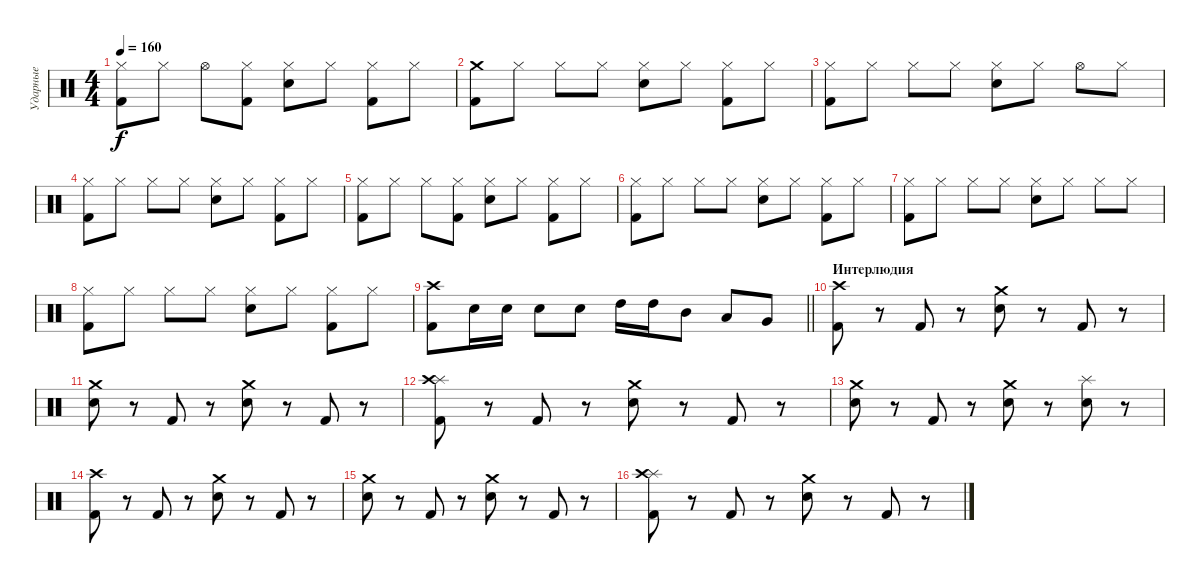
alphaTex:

\track ("Ударные" "Ударные") {instrument percussion}
\staff {score}
\articulation defaults
\ts (4 4)
\tempo 160
\clef neutral
\ks c
("Kick (hit) 2" "Hi-Hat (closed)").8{dy f} "Hi-Hat (closed)".8 "Hi-Hat (open)".8 ("Kick (hit) 2" "Hi-Hat (closed)").8 ("Electric Snare (hit)" "Hi-Hat (closed)").8 "Hi-Hat (closed)".8 ("Kick (hit) 2" "Hi-Hat (closed)").8 "Hi-Hat (closed)".8 |
("Kick (hit) 2" "Crash medium (hit)").8 "Hi-Hat (closed)".8 "Hi-Hat (closed)".8 "Hi-Hat (closed)".8 ("Electric Snare (hit)" "Hi-Hat (closed)").8 "Hi-Hat (closed)".8 ("Kick (hit) 2" "Hi-Hat (closed)").8 "Hi-Hat (closed)".8 |
("Kick (hit) 2" "Hi-Hat (closed)").8 "Hi-Hat (closed)".8 "Hi-Hat (closed)".8 "Hi-Hat (closed)".8 ("Electric Snare (hit)" "Hi-Hat (closed)").8 "Hi-Hat (closed)".8 "Hi-Hat (open)".8 "Hi-Hat (closed)".8 |
("Kick (hit) 2" "Hi-Hat (closed)").8 "Hi-Hat (closed)".8 "Hi-Hat (closed)".8 "Hi-Hat (closed)".8 ("Electric Snare (hit)" "Hi-Hat (closed)").8 "Hi-Hat (closed)".8 ("Kick (hit) 2" "Hi-Hat (closed)").8 "Hi-Hat (closed)".8 |
("Kick (hit) 2" "Hi-Hat (closed)").8 "Hi-Hat (closed)".8 "Hi-Hat (closed)".8 ("Kick (hit) 2" "Hi-Hat (closed)").8 ("Electric Snare (hit)" "Hi-Hat (closed)").8 "Hi-Hat (closed)".8 ("Kick (hit) 2" "Hi-Hat (closed)").8 "Hi-Hat (closed)".8 |
("Kick (hit) 2" "Hi-Hat (closed)").8 "Hi-Hat (closed)".8 "Hi-Hat (closed)".8 "Hi-Hat (closed)".8 ("Electric Snare (hit)" "Hi-Hat (closed)").8 "Hi-Hat (closed)".8 ("Kick (hit) 2" "Hi-Hat (closed)").8 "Hi-Hat (closed)".8 |
("Kick (hit) 2" "Hi-Hat (closed)").8 "Hi-Hat (closed)".8 "Hi-Hat (closed)".8 "Hi-Hat (closed)".8 ("Electric Snare (hit)" "Hi-Hat (closed)").8 "Hi-Hat (closed)".8 "Hi-Hat (closed)".8 "Hi-Hat (closed)".8 |
("Kick (hit) 2" "Hi-Hat (closed)").8 "Hi-Hat (closed)".8 "Hi-Hat (closed)".8 "Hi-Hat (closed)".8 ("Electric Snare (hit)" "Hi-Hat (closed)").8 "Hi-Hat (closed)".8 ("Kick (hit) 2" "Hi-Hat (closed)").8 "Hi-Hat (closed)".8 |
\barLineRight lightlight
("Kick (hit) 2" "Crash high (hit)").8 "Electric Snare (hit)".16 "Electric Snare (hit)".16 "Electric Snare (hit)".8 "Electric Snare (hit)".8 "High Tom (hit)".16 "High Tom (hit)".16 "Mid Tom (hit)".8 "Low Tom (hit)".8 "Very Low Tom (hit)".8 |
\section ("" "Интерлюдия")
("Kick (hit) 2" "Crash high (hit)").8 r.8 "Kick (hit) 2".8 r.8 ("Electric Snare (hit)" "Crash medium (hit)").8 r.8 "Kick (hit) 2".8 r.8 |
("Electric Snare (hit)" "Crash medium (hit)").8 r.8 "Kick (hit) 2".8 r.8 ("Electric Snare (hit)" "Crash medium (hit)").8 r.8 "Kick (hit) 2".8 r.8 |
("Kick (hit) 2" "Splash (hit)" "Crash high (hit)").8 r.8 "Kick (hit) 2".8 r.8 ("Electric Snare (hit)" "Crash medium (hit)").8 r.8 "Kick (hit) 2".8 r.8 |
("Electric Snare (hit)" "Crash medium (hit)").8 r.8 "Kick (hit) 2".8 r.8 ("Electric Snare (hit)" "Crash medium (hit)").8 r.8 ("Electric Snare (hit)" "Splash (hit)").8 r.8 |
("Kick (hit) 2" "Crash high (hit)").8 r.8 "Kick (hit) 2".8 r.8 ("Electric Snare (hit)" "Crash medium (hit)").8 r.8 "Kick (hit) 2".8 r.8 |
("Electric Snare (hit)" "Crash medium (hit)").8 r.8 "Kick (hit) 2".8 r.8 ("Electric Snare (hit)" "Crash medium (hit)").8 r.8 "Kick (hit) 2".8 r.8 |
("Kick (hit) 2" "Splash (hit)" "Crash high (hit)").8 r.8 "Kick (hit) 2".8 r.8 ("Electric Snare (hit)" "Crash medium (hit)").8 r.8 "Kick (hit) 2".8 r.8
